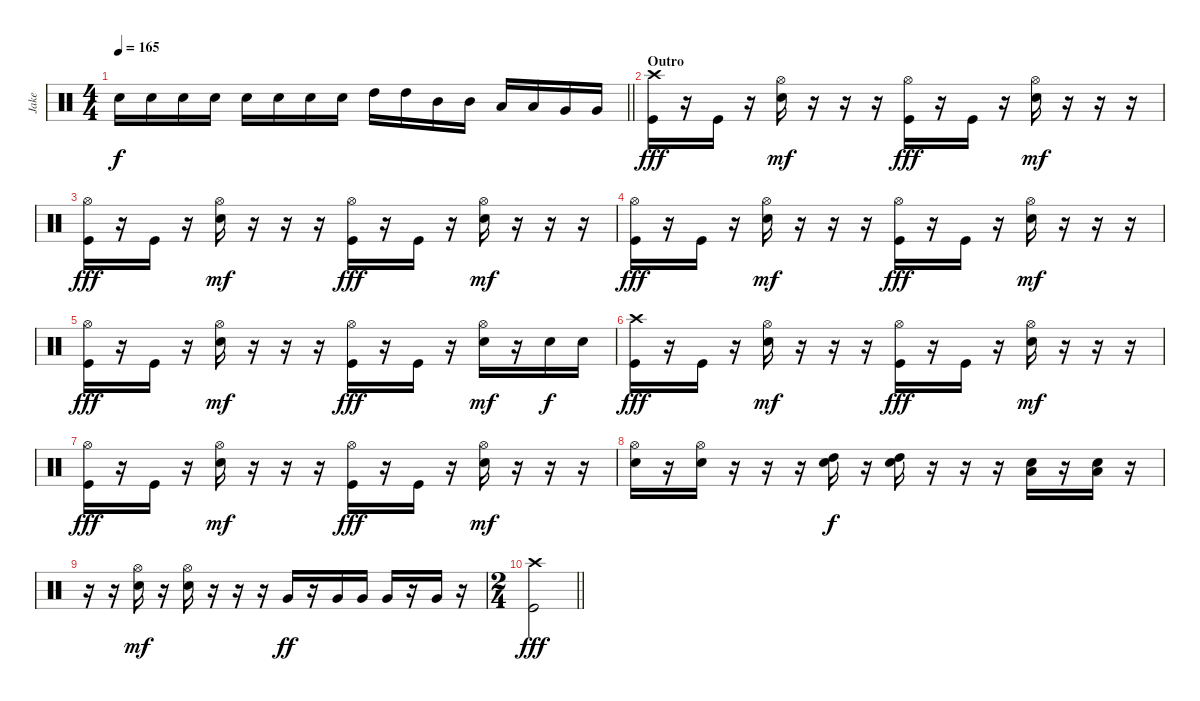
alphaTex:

\track ("Jake" "Jake") {instrument percussion}
\staff {score}
\articulation defaults
\ts (4 4)
\tempo 165
\clef neutral
\barLineRight lightlight
\ks c "Electric Snare (hit)".16{dy f} "Electric Snare (hit)".16 "Electric Snare (hit)".16 "Electric Snare (hit)".16 "Electric Snare (hit)".16 "Electric Snare (hit)".16 "Electric Snare (hit)".16 "Electric Snare (hit)".16 "High Tom (hit)".16 "High Tom (hit)".16 "Mid Tom (hit)".16 "Mid Tom (hit)".16 "Low Tom (hit)".16 "Low Tom (hit)".16 "Very Low Tom (hit)".16 "Very Low Tom (hit)".16
|
\section ("" "Outro")
("Crash high (hit)" "Kick (hit)").16{dy fff} r.16 "Kick (hit)".16 r.16 ("Hi-Hat (open)" "Electric Snare (hit)").16{dy mf} r.16 r.16 r.16 ("Hi-Hat (open)" "Kick (hit)").16{dy fff} r.16 "Kick (hit)".16 r.16 ("Hi-Hat (open)" "Electric Snare (hit)").16{dy mf} r.16 r.16 r.16 |
("Hi-Hat (open)" "Kick (hit)").16{dy fff} r.16 "Kick (hit)".16 r.16 ("Hi-Hat (open)" "Electric Snare (hit)").16{dy mf} r.16 r.16 r.16 ("Hi-Hat (open)" "Kick (hit)").16{dy fff} r.16 "Kick (hit)".16 r.16 ("Hi-Hat (open)" "Electric Snare (hit)").16{dy mf} r.16 r.16 r.16 |
("Hi-Hat (open)" "Kick (hit)").16{dy fff} r.16 "Kick (hit)".16 r.16 ("Hi-Hat (open)" "Electric Snare (hit)").16{dy mf} r.16 r.16 r.16 ("Hi-Hat (open)" "Kick (hit)").16{dy fff} r.16 "Kick (hit)".16 r.16 ("Hi-Hat (open)" "Electric Snare (hit)").16{dy mf} r.16 r.16 r.16 |
("Hi-Hat (open)" "Kick (hit)").16{dy fff} r.16 "Kick (hit)".16 r.16 ("Hi-Hat (open)" "Electric Snare (hit)").16{dy mf} r.16 r.16 r.16 ("Hi-Hat (open)" "Kick (hit)").16{dy fff} r.16 "Kick (hit)".16 r.16 ("Hi-Hat (open)" "Electric Snare (hit)").16{dy mf} r.16 "Electric Snare (hit)".16{dy f} "Electric Snare (hit)".16 |
("Crash high (hit)" "Kick (hit)").16{dy fff} r.16 "Kick (hit)".16 r.16 ("Hi-Hat (open)" "Electric Snare (hit)").16{dy mf} r.16 r.16 r.16 ("Hi-Hat (open)" "Kick (hit)").16{dy fff} r.16 "Kick (hit)".16 r.16 ("Hi-Hat (open)" "Electric Snare (hit)").16{dy mf} r.16 r.16 r.16 |
("Hi-Hat (open)" "Kick (hit)").16{dy fff} r.16 "Kick (hit)".16 r.16 ("Hi-Hat (open)" "Electric Snare (hit)").16{dy mf} r.16 r.16 r.16 ("Hi-Hat (open)" "Kick (hit)").16{dy fff} r.16 "Kick (hit)".16 r.16 ("Hi-Hat (open)" "Electric Snare (hit)").16{dy mf} r.16 r.16 r.16 |
("Hi-Hat (open)" "Electric Snare (hit)").16 r.16 ("Hi-Hat (open)" "Electric Snare (hit)").16 r.16 r.16 r.16 ("High Tom (hit)" "Electric Snare (hit)").16{dy f} r.16 ("High Tom (hit)" "Electric Snare (hit)").16 r.16 r.16 r.16 ("Low Tom (hit)" "Electric Snare (hit)").16 r.16 ("Low Tom (hit)" "Electric Snare (hit)").16 r.16 |
r.16 r.16 ("Hi-Hat (open)" "Electric Snare (hit)").16{dy mf} r.16 ("Hi-Hat (open)" "Electric Snare (hit)").16 r.16 r.16 r.16 "Very Low Tom (hit)".16{dy ff} r.16 "Very Low Tom (hit)".16 "Very Low Tom (hit)".16 "Very Low Tom (hit)".16 r.16 "Very Low Tom (hit)".16 r.16 |
\ts (2 4)
\barLineRight lightlight
("Crash high (hit)" "Kick (hit)").2{dy fff}
